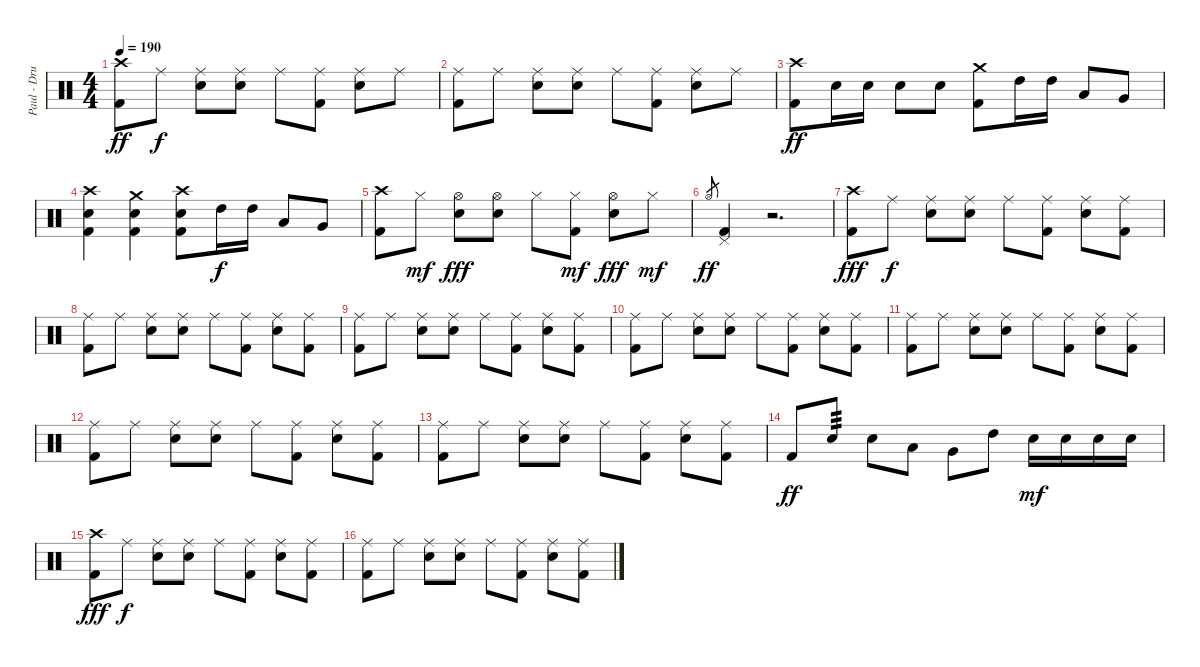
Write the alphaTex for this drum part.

\track ("Paul - Drums" "Paul - Dru") {instrument percussion}
\staff {score}
\articulation defaults
\ts (4 4)
\tempo 190
\clef neutral
\ks c
("Crash high (hit)" "Kick (hit) 2").8{dy ff} "Ride (middle)".8{dy f} ("Ride (middle)" "Electric Snare (hit)").8 ("Ride (middle)" "Electric Snare (hit)").8 "Ride (middle)".8 ("Ride (middle)" "Kick (hit) 2").8 ("Ride (middle)" "Electric Snare (hit)").8 "Ride (middle)".8 |
("Ride (middle)" "Kick (hit) 2").8 "Ride (middle)".8 ("Ride (middle)" "Electric Snare (hit)").8 ("Ride (middle)" "Electric Snare (hit)").8 "Ride (middle)".8 ("Ride (middle)" "Kick (hit) 2").8 ("Ride (middle)" "Electric Snare (hit)").8 "Ride (middle)".8 |
("Crash high (hit)" "Kick (hit) 2").8{dy ff} "Electric Snare (hit)".16 "Electric Snare (hit)".16 "Electric Snare (hit)".8 "Electric Snare (hit)".8 ("Crash medium (hit)" "Kick (hit) 2").8 "High Tom (hit)".16 "High Tom (hit)".16 "Low Tom (hit)".8 "Very Low Tom (hit)".8 |
("Crash high (hit)" "Electric Snare (hit)" "Kick (hit) 2").4 ("Crash medium (hit)" "Electric Snare (hit)" "Kick (hit) 2").4 ("Crash high (hit)" "Electric Snare (hit)" "Kick (hit) 2").8 "High Tom (hit)".16{dy f} "High Tom (hit)".16 "Low Tom (hit)".8 "Very Low Tom (hit)".8 |
("Crash high (hit)" "Kick (hit) 2").8 "Hi-Hat (closed)".8{dy mf} ("Hi-Hat (open)" "Electric Snare (hit)").8{dy fff} ("Hi-Hat (open)" "Electric Snare (hit)").8 "Hi-Hat (closed)".8 ("Hi-Hat (closed)" "Kick (hit) 2").8{dy mf} ("Hi-Hat (open)" "Electric Snare (hit)").8{dy fff} "Hi-Hat (closed)".8{dy mf} |
"Hi-Hat (open)".8{gr dy ff} ("Pedal Hi-Hat (hit)" "Kick (hit) 2").4 r.2{d} |
("Crash high (hit)" "Kick (hit) 2").8{dy fff} "Ride (middle)".8{dy f} ("Ride (middle)" "Electric Snare (hit)").8 ("Ride (middle)" "Electric Snare (hit)").8 "Ride (middle)".8 ("Ride (middle)" "Kick (hit) 2").8 ("Ride (middle)" "Electric Snare (hit)").8 ("Ride (middle)" "Kick (hit) 2").8 |
("Ride (middle)" "Kick (hit) 2").8 "Ride (middle)".8 ("Ride (middle)" "Electric Snare (hit)").8 ("Ride (middle)" "Electric Snare (hit)").8 "Ride (middle)".8 ("Ride (middle)" "Kick (hit) 2").8 ("Ride (middle)" "Electric Snare (hit)").8 ("Ride (middle)" "Kick (hit) 2").8 |
("Ride (middle)" "Kick (hit) 2").8 "Ride (middle)".8 ("Ride (middle)" "Electric Snare (hit)").8 ("Ride (middle)" "Electric Snare (hit)").8 "Ride (middle)".8 ("Ride (middle)" "Kick (hit) 2").8 ("Ride (middle)" "Electric Snare (hit)").8 ("Ride (middle)" "Kick (hit) 2").8 |
("Ride (middle)" "Kick (hit) 2").8 "Ride (middle)".8 ("Ride (middle)" "Electric Snare (hit)").8 ("Ride (middle)" "Electric Snare (hit)").8 "Ride (middle)".8 ("Ride (middle)" "Kick (hit) 2").8 ("Ride (middle)" "Electric Snare (hit)").8 ("Ride (middle)" "Kick (hit) 2").8 |
("Ride (middle)" "Kick (hit) 2").8 "Ride (middle)".8 ("Ride (middle)" "Electric Snare (hit)").8 ("Ride (middle)" "Electric Snare (hit)").8 "Ride (middle)".8 ("Ride (middle)" "Kick (hit) 2").8 ("Ride (middle)" "Electric Snare (hit)").8 ("Ride (middle)" "Kick (hit) 2").8 |
("Ride (middle)" "Kick (hit) 2").8 "Ride (middle)".8 ("Ride (middle)" "Electric Snare (hit)").8 ("Ride (middle)" "Electric Snare (hit)").8 "Ride (middle)".8 ("Ride (middle)" "Kick (hit) 2").8 ("Ride (middle)" "Electric Snare (hit)").8 ("Ride (middle)" "Kick (hit) 2").8 |
("Ride (middle)" "Kick (hit) 2").8 "Ride (middle)".8 ("Ride (middle)" "Electric Snare (hit)").8 ("Ride (middle)" "Electric Snare (hit)").8 "Ride (middle)".8 ("Ride (middle)" "Kick (hit) 2").8 ("Ride (middle)" "Electric Snare (hit)").8 ("Ride (middle)" "Kick (hit) 2").8 |
"Kick (hit) 2".8{dy ff} "Electric Snare (hit)".8{tp 3} "Electric Snare (hit)".8 "Low Tom (hit)".8 "Very Low Tom (hit)".8 "High Tom (hit)".8 "Electric Snare (hit)".16{dy mf} "Electric Snare (hit)".16 "Electric Snare (hit)".16 "Electric Snare (hit)".16 |
("Crash high (hit)" "Kick (hit) 2").8{dy fff} "Ride (middle)".8{dy f} ("Ride (middle)" "Electric Snare (hit)").8 ("Ride (middle)" "Electric Snare (hit)").8 "Ride (middle)".8 ("Ride (middle)" "Kick (hit) 2").8 ("Ride (middle)" "Electric Snare (hit)").8 ("Ride (middle)" "Kick (hit) 2").8 |
("Ride (middle)" "Kick (hit) 2").8 "Ride (middle)".8 ("Ride (middle)" "Electric Snare (hit)").8 ("Ride (middle)" "Electric Snare (hit)").8 "Ride (middle)".8 ("Ride (middle)" "Kick (hit) 2").8 ("Ride (middle)" "Electric Snare (hit)").8 ("Ride (middle)" "Kick (hit) 2").8
